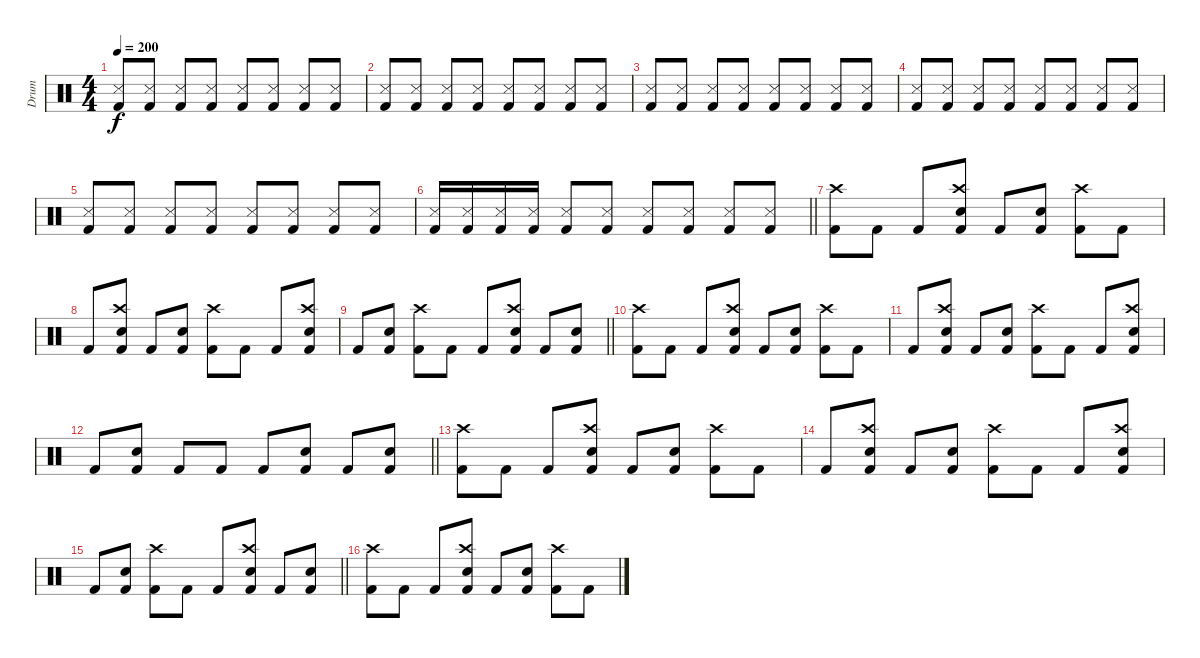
\track ("Drum" "Drum") {instrument percussion}
\staff {score}
\articulation defaults
\ts (4 4)
\tempo 200
\clef neutral
\ks c
("Snare (side stick) 3" "Kick (hit) 2").8{dy f} ("Snare (side stick) 3" "Kick (hit) 2").8 ("Snare (side stick) 3" "Kick (hit) 2").8 ("Snare (side stick) 3" "Kick (hit) 2").8 ("Snare (side stick) 3" "Kick (hit) 2").8 ("Snare (side stick) 3" "Kick (hit) 2").8 ("Snare (side stick) 3" "Kick (hit) 2").8 ("Snare (side stick) 3" "Kick (hit) 2").8 |
("Snare (side stick) 3" "Kick (hit) 2").8 ("Snare (side stick) 3" "Kick (hit) 2").8 ("Snare (side stick) 3" "Kick (hit) 2").8 ("Snare (side stick) 3" "Kick (hit) 2").8 ("Snare (side stick) 3" "Kick (hit) 2").8 ("Snare (side stick) 3" "Kick (hit) 2").8 ("Snare (side stick) 3" "Kick (hit) 2").8 ("Snare (side stick) 3" "Kick (hit) 2").8 |
("Snare (side stick) 3" "Kick (hit) 2").8 ("Snare (side stick) 3" "Kick (hit) 2").8 ("Snare (side stick) 3" "Kick (hit) 2").8 ("Snare (side stick) 3" "Kick (hit) 2").8 ("Snare (side stick) 3" "Kick (hit) 2").8 ("Snare (side stick) 3" "Kick (hit) 2").8 ("Snare (side stick) 3" "Kick (hit) 2").8 ("Snare (side stick) 3" "Kick (hit) 2").8 |
("Snare (side stick) 3" "Kick (hit) 2").8 ("Snare (side stick) 3" "Kick (hit) 2").8 ("Snare (side stick) 3" "Kick (hit) 2").8 ("Snare (side stick) 3" "Kick (hit) 2").8 ("Snare (side stick) 3" "Kick (hit) 2").8 ("Snare (side stick) 3" "Kick (hit) 2").8 ("Snare (side stick) 3" "Kick (hit) 2").8 ("Snare (side stick) 3" "Kick (hit) 2").8 |
("Snare (side stick) 3" "Kick (hit) 2").8 ("Snare (side stick) 3" "Kick (hit) 2").8 ("Snare (side stick) 3" "Kick (hit) 2").8 ("Snare (side stick) 3" "Kick (hit) 2").8 ("Snare (side stick) 3" "Kick (hit) 2").8 ("Snare (side stick) 3" "Kick (hit) 2").8 ("Snare (side stick) 3" "Kick (hit) 2").8 ("Snare (side stick) 3" "Kick (hit) 2").8 |
\barLineRight lightlight
("Snare (side stick) 3" "Kick (hit) 2").16 ("Snare (side stick) 3" "Kick (hit) 2").16 ("Snare (side stick) 3" "Kick (hit) 2").16 ("Snare (side stick) 3" "Kick (hit) 2").16 ("Snare (side stick) 3" "Kick (hit) 2").8 ("Snare (side stick) 3" "Kick (hit) 2").8 ("Snare (side stick) 3" "Kick (hit) 2").8 ("Snare (side stick) 3" "Kick (hit) 2").8 ("Snare (side stick) 3" "Kick (hit) 2").8 ("Snare (side stick) 3" "Kick (hit) 2").8 |
\section ("" " ")
("Crash high (hit)" "Kick (hit) 2").8 "Kick (hit) 2".8 "Kick (hit) 2".8 ("Snare (hit) 2" "Crash high (hit)" "Kick (hit) 2").8 "Kick (hit) 2".8 ("Snare (hit) 2" "Kick (hit) 2").8 ("Crash high (hit)" "Kick (hit) 2").8 "Kick (hit) 2".8 |
"Kick (hit) 2".8 ("Snare (hit) 2" "Crash high (hit)" "Kick (hit) 2").8 "Kick (hit) 2".8 ("Snare (hit) 2" "Kick (hit) 2").8 ("Crash high (hit)" "Kick (hit) 2").8 "Kick (hit) 2".8 "Kick (hit) 2".8 ("Snare (hit) 2" "Crash high (hit)" "Kick (hit) 2").8 |
\barLineRight lightlight "Kick (hit) 2".8
("Snare (hit) 2" "Kick (hit) 2").8 ("Crash high (hit)" "Kick (hit) 2").8 "Kick (hit) 2".8 "Kick (hit) 2".8 ("Snare (hit) 2" "Crash high (hit)" "Kick (hit) 2").8 "Kick (hit) 2".8 ("Snare (hit) 2" "Kick (hit) 2").8 |
("Crash high (hit)" "Kick (hit) 2").8 "Kick (hit) 2".8 "Kick (hit) 2".8 ("Snare (hit) 2" "Crash high (hit)" "Kick (hit) 2").8 "Kick (hit) 2".8 ("Snare (hit) 2" "Kick (hit) 2").8 ("Crash high (hit)" "Kick (hit) 2").8 "Kick (hit) 2".8 |
"Kick (hit) 2".8 ("Snare (hit) 2" "Crash high (hit)" "Kick (hit) 2").8 "Kick (hit) 2".8 ("Snare (hit) 2" "Kick (hit) 2").8 ("Crash high (hit)" "Kick (hit) 2").8 "Kick (hit) 2".8 "Kick (hit) 2".8 ("Snare (hit) 2" "Crash high (hit)" "Kick (hit) 2").8 |
\barLineRight lightlight "Kick (hit) 2".8
("Electric Snare (hit)" "Kick (hit) 2").8 "Kick (hit) 2".8 "Kick (hit) 2".8 "Kick (hit) 2".8 ("Electric Snare (hit)" "Kick (hit) 2").8 "Kick (hit) 2".8 ("Electric Snare (hit)" "Kick (hit) 2").8 |
("Crash high (hit)" "Kick (hit) 2").8 "Kick (hit) 2".8 "Kick (hit) 2".8 ("Snare (hit) 2" "Crash high (hit)" "Kick (hit) 2").8 "Kick (hit) 2".8 ("Snare (hit) 2" "Kick (hit) 2").8 ("Crash high (hit)" "Kick (hit) 2").8 "Kick (hit) 2".8 |
"Kick (hit) 2".8 ("Snare (hit) 2" "Crash high (hit)" "Kick (hit) 2").8 "Kick (hit) 2".8 ("Snare (hit) 2" "Kick (hit) 2").8 ("Crash high (hit)" "Kick (hit) 2").8 "Kick (hit) 2".8 "Kick (hit) 2".8 ("Snare (hit) 2" "Crash high (hit)" "Kick (hit) 2").8 |
\barLineRight lightlight "Kick (hit) 2".8
("Snare (hit) 2" "Kick (hit) 2").8 ("Crash high (hit)" "Kick (hit) 2").8 "Kick (hit) 2".8 "Kick (hit) 2".8 ("Snare (hit) 2" "Crash high (hit)" "Kick (hit) 2").8 "Kick (hit) 2".8 ("Snare (hit) 2" "Kick (hit) 2").8 |
("Crash high (hit)" "Kick (hit) 2").8 "Kick (hit) 2".8 "Kick (hit) 2".8 ("Snare (hit) 2" "Crash high (hit)" "Kick (hit) 2").8 "Kick (hit) 2".8 ("Snare (hit) 2" "Kick (hit) 2").8 ("Crash high (hit)" "Kick (hit) 2").8 "Kick (hit) 2".8
